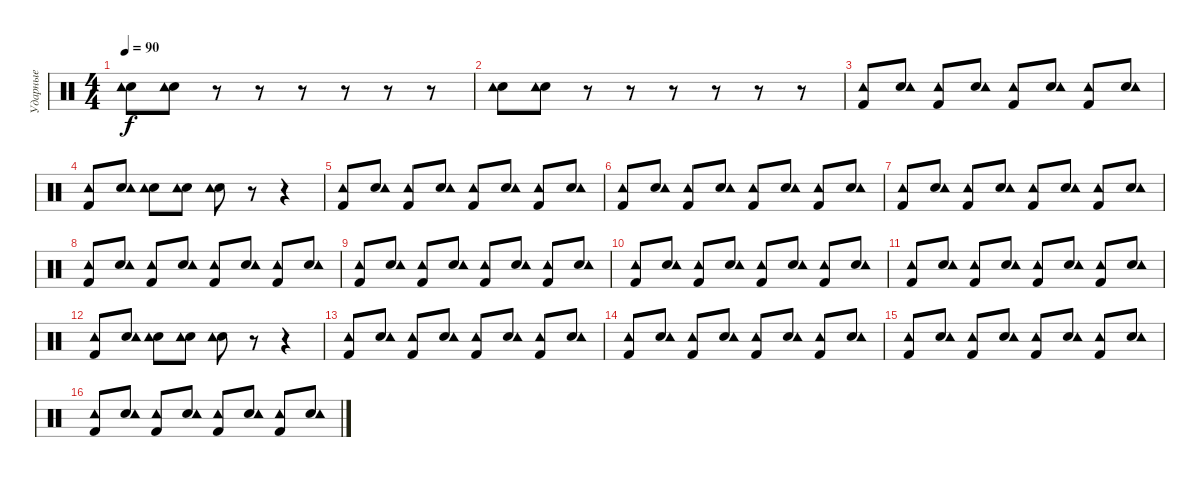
\track ("Ударные" "Ударные") {instrument percussion}
\staff {score}
\articulation defaults
\ts (4 4)
\tempo 90
\clef neutral
\ks c
("Snare (hit) 2" "Tambourine (hit)").8{dy f} ("Snare (hit) 2" "Tambourine (hit)").8 r.8 r.8 r.8 r.8 r.8 r.8 |
("Snare (hit) 2" "Tambourine (hit)").8 ("Snare (hit) 2" "Tambourine (hit)").8 r.8 r.8 r.8 r.8 r.8 r.8 |
("Kick (hit) 2" "Tambourine (hit)").8 ("Snare (hit) 2" "Tambourine (hit)").8 ("Kick (hit) 2" "Tambourine (hit)").8 ("Snare (hit) 2" "Tambourine (hit)").8 ("Kick (hit) 2" "Tambourine (hit)").8 ("Snare (hit) 2" "Tambourine (hit)").8 ("Kick (hit) 2" "Tambourine (hit)").8 ("Snare (hit) 2" "Tambourine (hit)").8 |
("Kick (hit) 2" "Tambourine (hit)").8 ("Snare (hit) 2" "Tambourine (hit)").8 ("Snare (hit) 2" "Tambourine (hit)").8 ("Snare (hit) 2" "Tambourine (hit)").8 ("Snare (hit) 2" "Tambourine (hit)").8 r.8 r.4 |
("Kick (hit) 2" "Tambourine (hit)").8 ("Snare (hit) 2" "Tambourine (hit)").8 ("Kick (hit) 2" "Tambourine (hit)").8 ("Snare (hit) 2" "Tambourine (hit)").8 ("Kick (hit) 2" "Tambourine (hit)").8 ("Snare (hit) 2" "Tambourine (hit)").8 ("Kick (hit) 2" "Tambourine (hit)").8 ("Snare (hit) 2" "Tambourine (hit)").8 |
("Kick (hit) 2" "Tambourine (hit)").8 ("Snare (hit) 2" "Tambourine (hit)").8 ("Kick (hit) 2" "Tambourine (hit)").8 ("Snare (hit) 2" "Tambourine (hit)").8 ("Kick (hit) 2" "Tambourine (hit)").8 ("Snare (hit) 2" "Tambourine (hit)").8 ("Kick (hit) 2" "Tambourine (hit)").8 ("Snare (hit) 2" "Tambourine (hit)").8 |
("Kick (hit) 2" "Tambourine (hit)").8 ("Snare (hit) 2" "Tambourine (hit)").8 ("Kick (hit) 2" "Tambourine (hit)").8 ("Snare (hit) 2" "Tambourine (hit)").8 ("Kick (hit) 2" "Tambourine (hit)").8 ("Snare (hit) 2" "Tambourine (hit)").8 ("Kick (hit) 2" "Tambourine (hit)").8 ("Snare (hit) 2" "Tambourine (hit)").8 |
("Kick (hit) 2" "Tambourine (hit)").8 ("Snare (hit) 2" "Tambourine (hit)").8 ("Kick (hit) 2" "Tambourine (hit)").8 ("Snare (hit) 2" "Tambourine (hit)").8 ("Kick (hit) 2" "Tambourine (hit)").8 ("Snare (hit) 2" "Tambourine (hit)").8 ("Kick (hit) 2" "Tambourine (hit)").8 ("Snare (hit) 2" "Tambourine (hit)").8 |
("Kick (hit) 2" "Tambourine (hit)").8 ("Snare (hit) 2" "Tambourine (hit)").8 ("Kick (hit) 2" "Tambourine (hit)").8 ("Snare (hit) 2" "Tambourine (hit)").8 ("Kick (hit) 2" "Tambourine (hit)").8 ("Snare (hit) 2" "Tambourine (hit)").8 ("Kick (hit) 2" "Tambourine (hit)").8 ("Snare (hit) 2" "Tambourine (hit)").8 |
("Kick (hit) 2" "Tambourine (hit)").8 ("Snare (hit) 2" "Tambourine (hit)").8 ("Kick (hit) 2" "Tambourine (hit)").8 ("Snare (hit) 2" "Tambourine (hit)").8 ("Kick (hit) 2" "Tambourine (hit)").8 ("Snare (hit) 2" "Tambourine (hit)").8 ("Kick (hit) 2" "Tambourine (hit)").8 ("Snare (hit) 2" "Tambourine (hit)").8 |
("Kick (hit) 2" "Tambourine (hit)").8 ("Snare (hit) 2" "Tambourine (hit)").8 ("Kick (hit) 2" "Tambourine (hit)").8 ("Snare (hit) 2" "Tambourine (hit)").8 ("Kick (hit) 2" "Tambourine (hit)").8 ("Snare (hit) 2" "Tambourine (hit)").8 ("Kick (hit) 2" "Tambourine (hit)").8 ("Snare (hit) 2" "Tambourine (hit)").8 |
("Kick (hit) 2" "Tambourine (hit)").8 ("Snare (hit) 2" "Tambourine (hit)").8 ("Snare (hit) 2" "Tambourine (hit)").8 ("Snare (hit) 2" "Tambourine (hit)").8 ("Snare (hit) 2" "Tambourine (hit)").8 r.8 r.4 |
("Kick (hit) 2" "Tambourine (hit)").8 ("Snare (hit) 2" "Tambourine (hit)").8 ("Kick (hit) 2" "Tambourine (hit)").8 ("Snare (hit) 2" "Tambourine (hit)").8 ("Kick (hit) 2" "Tambourine (hit)").8 ("Snare (hit) 2" "Tambourine (hit)").8 ("Kick (hit) 2" "Tambourine (hit)").8 ("Snare (hit) 2" "Tambourine (hit)").8 |
("Kick (hit) 2" "Tambourine (hit)").8 ("Snare (hit) 2" "Tambourine (hit)").8 ("Kick (hit) 2" "Tambourine (hit)").8 ("Snare (hit) 2" "Tambourine (hit)").8 ("Kick (hit) 2" "Tambourine (hit)").8 ("Snare (hit) 2" "Tambourine (hit)").8 ("Kick (hit) 2" "Tambourine (hit)").8 ("Snare (hit) 2" "Tambourine (hit)").8 |
("Kick (hit) 2" "Tambourine (hit)").8 ("Snare (hit) 2" "Tambourine (hit)").8 ("Kick (hit) 2" "Tambourine (hit)").8 ("Snare (hit) 2" "Tambourine (hit)").8 ("Kick (hit) 2" "Tambourine (hit)").8 ("Snare (hit) 2" "Tambourine (hit)").8 ("Kick (hit) 2" "Tambourine (hit)").8 ("Snare (hit) 2" "Tambourine (hit)").8 |
("Kick (hit) 2" "Tambourine (hit)").8 ("Snare (hit) 2" "Tambourine (hit)").8 ("Kick (hit) 2" "Tambourine (hit)").8 ("Snare (hit) 2" "Tambourine (hit)").8 ("Kick (hit) 2" "Tambourine (hit)").8 ("Snare (hit) 2" "Tambourine (hit)").8 ("Kick (hit) 2" "Tambourine (hit)").8 ("Snare (hit) 2" "Tambourine (hit)").8
